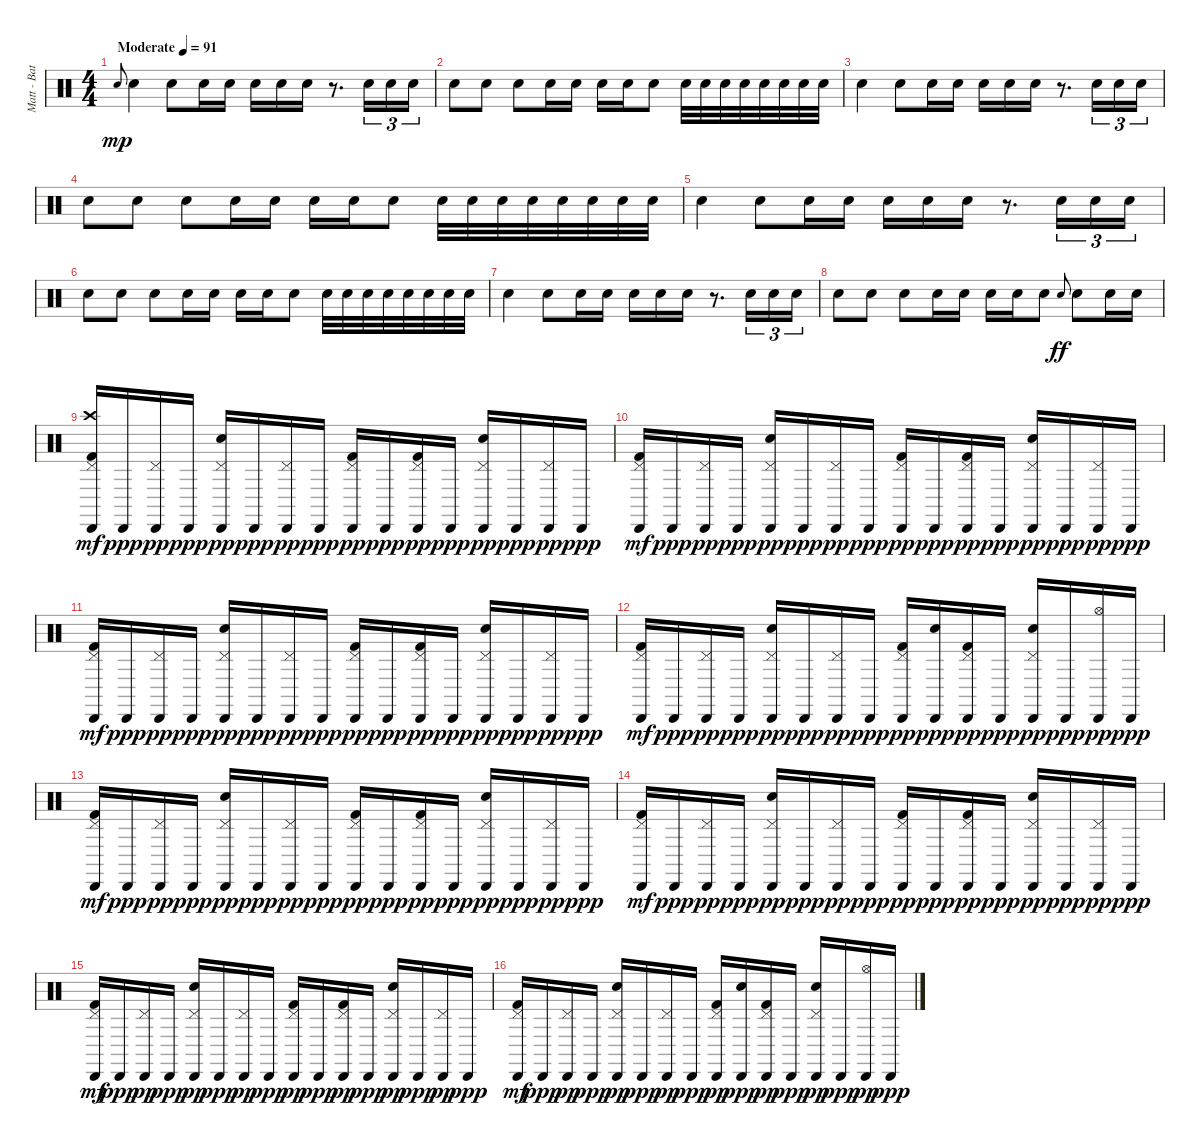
\track ("Matt - Batería" "Matt - Bat") {instrument percussion}
\staff {score}
\articulation defaults
\ts (4 4)
\tempo (91 "Moderate")
\clef neutral
\ks c "Snare (hit) 2".8{gr onbeat dy mp} "Snare (hit) 2".4 "Snare (hit) 2".8 "Snare (hit) 2".16 "Snare (hit) 2".16 "Snare (hit) 2".16 "Snare (hit) 2".16 "Snare (hit) 2".16
r.8{d} "Snare (hit) 2".16{tu (3 2)} "Snare (hit) 2".16{tu (3 2)} "Snare (hit) 2".16{tu (3 2)} |
"Snare (hit) 2".8 "Snare (hit) 2".8 "Snare (hit) 2".8 "Snare (hit) 2".16 "Snare (hit) 2".16 "Snare (hit) 2".16 "Snare (hit) 2".16 "Snare (hit) 2".8 "Snare (hit) 2".32 "Snare (hit) 2".32 "Snare (hit) 2".32 "Snare (hit) 2".32 "Snare (hit) 2".32 "Snare (hit) 2".32 "Snare (hit) 2".32 "Snare (hit) 2".32 |
"Snare (hit) 2".4 "Snare (hit) 2".8 "Snare (hit) 2".16 "Snare (hit) 2".16 "Snare (hit) 2".16 "Snare (hit) 2".16 "Snare (hit) 2".16 r.8{d} "Snare (hit) 2".16{tu (3 2)} "Snare (hit) 2".16{tu (3 2)} "Snare (hit) 2".16{tu (3 2)} |
"Snare (hit) 2".8 "Snare (hit) 2".8 "Snare (hit) 2".8 "Snare (hit) 2".16 "Snare (hit) 2".16 "Snare (hit) 2".16 "Snare (hit) 2".16 "Snare (hit) 2".8 "Snare (hit) 2".32 "Snare (hit) 2".32 "Snare (hit) 2".32 "Snare (hit) 2".32 "Snare (hit) 2".32 "Snare (hit) 2".32 "Snare (hit) 2".32 "Snare (hit) 2".32 |
"Snare (hit) 2".4 "Snare (hit) 2".8 "Snare (hit) 2".16 "Snare (hit) 2".16 "Snare (hit) 2".16 "Snare (hit) 2".16 "Snare (hit) 2".16 r.8{d} "Snare (hit) 2".16{tu (3 2)} "Snare (hit) 2".16{tu (3 2)} "Snare (hit) 2".16{tu (3 2)} |
"Snare (hit) 2".8 "Snare (hit) 2".8 "Snare (hit) 2".8 "Snare (hit) 2".16 "Snare (hit) 2".16 "Snare (hit) 2".16 "Snare (hit) 2".16 "Snare (hit) 2".8 "Snare (hit) 2".32 "Snare (hit) 2".32 "Snare (hit) 2".32 "Snare (hit) 2".32 "Snare (hit) 2".32 "Snare (hit) 2".32 "Snare (hit) 2".32 "Snare (hit) 2".32 |
"Snare (hit) 2".4 "Snare (hit) 2".8 "Snare (hit) 2".16 "Snare (hit) 2".16 "Snare (hit) 2".16 "Snare (hit) 2".16 "Snare (hit) 2".16 r.8{d} "Snare (hit) 2".16{tu (3 2)} "Snare (hit) 2".16{tu (3 2)} "Snare (hit) 2".16{tu (3 2)} |
"Snare (hit) 2".8 "Snare (hit) 2".8 "Snare (hit) 2".8 "Snare (hit) 2".16 "Snare (hit) 2".16 "Snare (hit) 2".16 "Snare (hit) 2".16 "Snare (hit) 2".8 "Electric Snare (hit)".8{gr onbeat dy ff} "Electric Snare (hit)".8 "Electric Snare (hit)".16 "Electric Snare (hit)".16 |
("Cabasa (hit)" "Crash high (hit)" "Pedal Hi-Hat (hit)" "Kick (hit) 2").16{dy mf} "Cabasa (hit)".16{dy ppp} ("Cabasa (hit)" "Pedal Hi-Hat (hit)").16{dy pp} "Cabasa (hit)".16{dy ppp} ("Cabasa (hit)" "Pedal Hi-Hat (hit)" "Snare (hit) 2").16{dy pp} "Cabasa (hit)".16{dy ppp} ("Cabasa (hit)" "Pedal Hi-Hat (hit)").16{dy pp} "Cabasa (hit)".16{dy ppp} ("Cabasa (hit)" "Pedal Hi-Hat (hit)" "Kick (hit) 2").16{dy pp} "Cabasa (hit)".16{dy ppp} ("Cabasa (hit)" "Pedal Hi-Hat (hit)" "Kick (hit) 2").16{dy pp} "Cabasa (hit)".16{dy ppp} ("Cabasa (hit)" "Pedal Hi-Hat (hit)" "Snare (hit) 2").16{dy pp} "Cabasa (hit)".16{dy ppp} ("Cabasa (hit)" "Pedal Hi-Hat (hit)").16{dy pp} "Cabasa (hit)".16{dy ppp} |
("Cabasa (hit)" "Pedal Hi-Hat (hit)" "Kick (hit) 2").16{dy mf} "Cabasa (hit)".16{dy ppp} ("Cabasa (hit)" "Pedal Hi-Hat (hit)").16{dy pp} "Cabasa (hit)".16{dy ppp} ("Cabasa (hit)" "Pedal Hi-Hat (hit)" "Snare (hit) 2").16{dy pp} "Cabasa (hit)".16{dy ppp} ("Cabasa (hit)" "Pedal Hi-Hat (hit)").16{dy pp} "Cabasa (hit)".16{dy ppp} ("Cabasa (hit)" "Pedal Hi-Hat (hit)" "Kick (hit) 2").16{dy pp} "Cabasa (hit)".16{dy ppp} ("Cabasa (hit)" "Pedal Hi-Hat (hit)" "Kick (hit) 2").16{dy pp} "Cabasa (hit)".16{dy ppp} ("Cabasa (hit)" "Pedal Hi-Hat (hit)" "Snare (hit) 2").16{dy pp} "Cabasa (hit)".16{dy ppp} ("Cabasa (hit)" "Pedal Hi-Hat (hit)").16{dy pp} "Cabasa (hit)".16{dy ppp} |
("Cabasa (hit)" "Pedal Hi-Hat (hit)" "Kick (hit) 2").16{dy mf} "Cabasa (hit)".16{dy ppp} ("Cabasa (hit)" "Pedal Hi-Hat (hit)").16{dy pp} "Cabasa (hit)".16{dy ppp} ("Cabasa (hit)" "Pedal Hi-Hat (hit)" "Snare (hit) 2").16{dy pp} "Cabasa (hit)".16{dy ppp} ("Cabasa (hit)" "Pedal Hi-Hat (hit)").16{dy pp} "Cabasa (hit)".16{dy ppp} ("Cabasa (hit)" "Pedal Hi-Hat (hit)" "Kick (hit) 2").16{dy pp} "Cabasa (hit)".16{dy ppp} ("Cabasa (hit)" "Pedal Hi-Hat (hit)" "Kick (hit) 2").16{dy pp} "Cabasa (hit)".16{dy ppp} ("Cabasa (hit)" "Pedal Hi-Hat (hit)" "Snare (hit) 2").16{dy pp} "Cabasa (hit)".16{dy ppp} ("Cabasa (hit)" "Pedal Hi-Hat (hit)").16{dy pp} "Cabasa (hit)".16{dy ppp} |
("Cabasa (hit)" "Pedal Hi-Hat (hit)" "Kick (hit) 2").16{dy mf} "Cabasa (hit)".16{dy ppp} ("Cabasa (hit)" "Pedal Hi-Hat (hit)").16{dy pp} "Cabasa (hit)".16{dy ppp} ("Cabasa (hit)" "Pedal Hi-Hat (hit)" "Snare (hit) 2").16{dy pp} "Cabasa (hit)".16{dy ppp} ("Cabasa (hit)" "Pedal Hi-Hat (hit)").16{dy pp} "Cabasa (hit)".16{dy ppp} ("Cabasa (hit)" "Pedal Hi-Hat (hit)" "Kick (hit) 2").16{dy pp} ("Cabasa (hit)" "Snare (hit) 2").16{dy ppp} ("Cabasa (hit)" "Pedal Hi-Hat (hit)" "Kick (hit) 2").16{dy pp} "Cabasa (hit)".16{dy ppp} ("Cabasa (hit)" "Pedal Hi-Hat (hit)" "Snare (hit) 2").16{dy pp} "Cabasa (hit)".16{dy ppp} ("Cabasa (hit)" "Hi-Hat (open)").16{dy pp} "Cabasa (hit)".16{dy ppp} |
("Cabasa (hit)" "Pedal Hi-Hat (hit)" "Kick (hit) 2").16{dy mf} "Cabasa (hit)".16{dy ppp} ("Cabasa (hit)" "Pedal Hi-Hat (hit)").16{dy pp} "Cabasa (hit)".16{dy ppp} ("Cabasa (hit)" "Pedal Hi-Hat (hit)" "Snare (hit) 2").16{dy pp} "Cabasa (hit)".16{dy ppp} ("Cabasa (hit)" "Pedal Hi-Hat (hit)").16{dy pp} "Cabasa (hit)".16{dy ppp} ("Cabasa (hit)" "Pedal Hi-Hat (hit)" "Kick (hit) 2").16{dy pp} "Cabasa (hit)".16{dy ppp} ("Cabasa (hit)" "Pedal Hi-Hat (hit)" "Kick (hit) 2").16{dy pp} "Cabasa (hit)".16{dy ppp} ("Cabasa (hit)" "Pedal Hi-Hat (hit)" "Snare (hit) 2").16{dy pp} "Cabasa (hit)".16{dy ppp} ("Cabasa (hit)" "Pedal Hi-Hat (hit)").16{dy pp} "Cabasa (hit)".16{dy ppp} |
("Cabasa (hit)" "Pedal Hi-Hat (hit)" "Kick (hit) 2").16{dy mf} "Cabasa (hit)".16{dy ppp} ("Cabasa (hit)" "Pedal Hi-Hat (hit)").16{dy pp} "Cabasa (hit)".16{dy ppp} ("Cabasa (hit)" "Pedal Hi-Hat (hit)" "Snare (hit) 2").16{dy pp} "Cabasa (hit)".16{dy ppp} ("Cabasa (hit)" "Pedal Hi-Hat (hit)").16{dy pp} "Cabasa (hit)".16{dy ppp} ("Cabasa (hit)" "Pedal Hi-Hat (hit)" "Kick (hit) 2").16{dy pp} "Cabasa (hit)".16{dy ppp} ("Cabasa (hit)" "Pedal Hi-Hat (hit)" "Kick (hit) 2").16{dy pp} "Cabasa (hit)".16{dy ppp} ("Cabasa (hit)" "Pedal Hi-Hat (hit)" "Snare (hit) 2").16{dy pp} "Cabasa (hit)".16{dy ppp} ("Cabasa (hit)" "Pedal Hi-Hat (hit)").16{dy pp} "Cabasa (hit)".16{dy ppp} |
("Cabasa (hit)" "Pedal Hi-Hat (hit)" "Kick (hit) 2").16{dy mf} "Cabasa (hit)".16{dy ppp} ("Cabasa (hit)" "Pedal Hi-Hat (hit)").16{dy pp} "Cabasa (hit)".16{dy ppp} ("Cabasa (hit)" "Pedal Hi-Hat (hit)" "Snare (hit) 2").16{dy pp} "Cabasa (hit)".16{dy ppp} ("Cabasa (hit)" "Pedal Hi-Hat (hit)").16{dy pp} "Cabasa (hit)".16{dy ppp} ("Cabasa (hit)" "Pedal Hi-Hat (hit)" "Kick (hit) 2").16{dy pp} "Cabasa (hit)".16{dy ppp} ("Cabasa (hit)" "Pedal Hi-Hat (hit)" "Kick (hit) 2").16{dy pp} "Cabasa (hit)".16{dy ppp} ("Cabasa (hit)" "Pedal Hi-Hat (hit)" "Snare (hit) 2").16{dy pp} "Cabasa (hit)".16{dy ppp} ("Cabasa (hit)" "Pedal Hi-Hat (hit)").16{dy pp} "Cabasa (hit)".16{dy ppp} |
("Cabasa (hit)" "Pedal Hi-Hat (hit)" "Kick (hit) 2").16{dy mf} "Cabasa (hit)".16{dy ppp} ("Cabasa (hit)" "Pedal Hi-Hat (hit)").16{dy pp} "Cabasa (hit)".16{dy ppp} ("Cabasa (hit)" "Pedal Hi-Hat (hit)" "Snare (hit) 2").16{dy pp} "Cabasa (hit)".16{dy ppp} ("Cabasa (hit)" "Pedal Hi-Hat (hit)").16{dy pp} "Cabasa (hit)".16{dy ppp} ("Cabasa (hit)" "Pedal Hi-Hat (hit)" "Kick (hit) 2").16{dy pp} ("Cabasa (hit)" "Snare (hit) 2").16{dy ppp} ("Cabasa (hit)" "Pedal Hi-Hat (hit)" "Kick (hit) 2").16{dy pp} "Cabasa (hit)".16{dy ppp} ("Cabasa (hit)" "Pedal Hi-Hat (hit)" "Snare (hit) 2").16{dy pp} "Cabasa (hit)".16{dy ppp} ("Cabasa (hit)" "Hi-Hat (open)").16{dy pp} "Cabasa (hit)".16{dy ppp}
